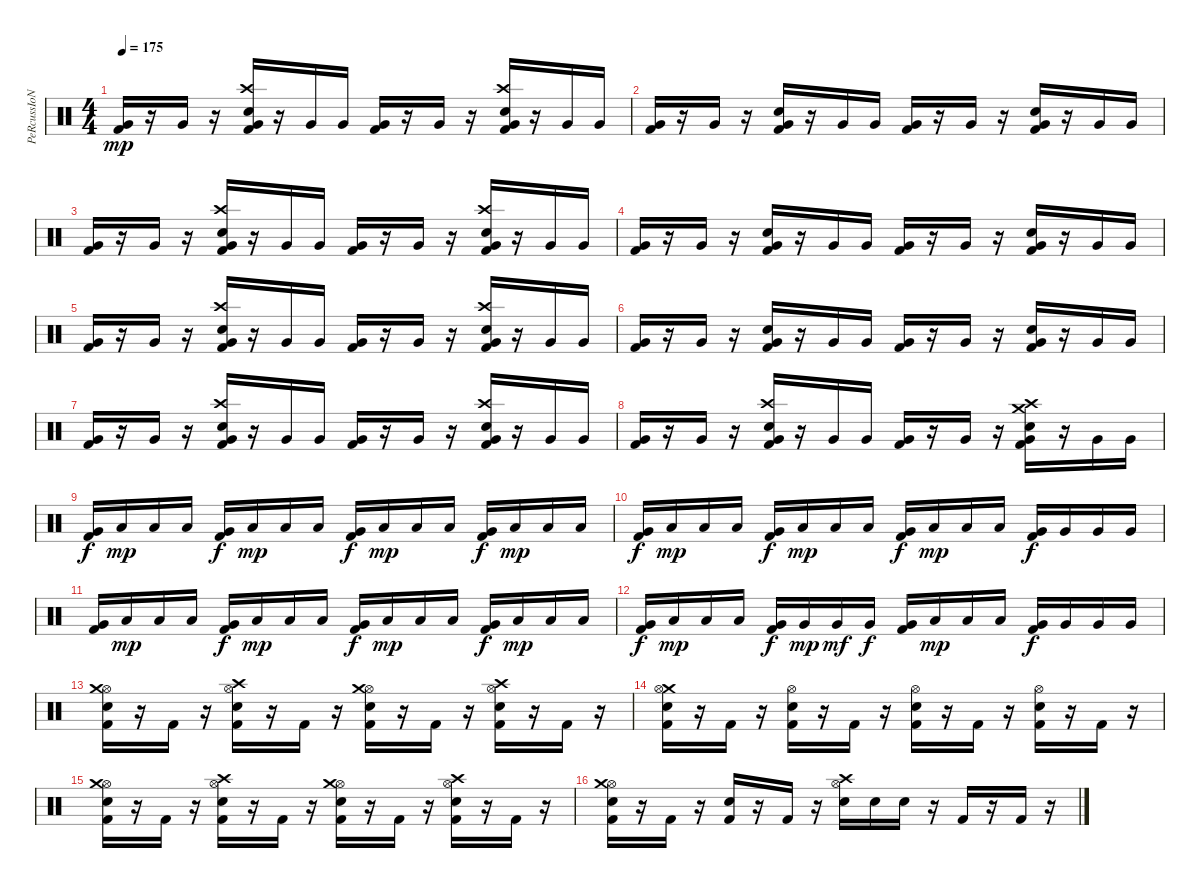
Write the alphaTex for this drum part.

\track ("PeRcussIoNs" "PeRcussIoN") {instrument percussion}
\staff {score}
\articulation defaults
\ts (4 4)
\tempo 175
\clef neutral
\ks c
("Kick (hit) 2" "Very Low Tom (hit)").16{dy mp} r.16 "Very Low Tom (hit)".16 r.16 ("Crash high (hit)" "Electric Snare (hit)" "Kick (hit) 2" "Very Low Tom (hit)").16 r.16 "Very Low Tom (hit)".16 "Very Low Tom (hit)".16 ("Kick (hit) 2" "Very Low Tom (hit)").16 r.16 "Very Low Tom (hit)".16 r.16 ("Crash high (hit)" "Electric Snare (hit)" "Kick (hit) 2" "Very Low Tom (hit)").16 r.16 "Very Low Tom (hit)".16 "Very Low Tom (hit)".16 |
("Kick (hit) 2" "Very Low Tom (hit)").16 r.16 "Very Low Tom (hit)".16 r.16 ("Electric Snare (hit)" "Kick (hit) 2" "Very Low Tom (hit)").16 r.16 "Very Low Tom (hit)".16 "Very Low Tom (hit)".16 ("Kick (hit) 2" "Very Low Tom (hit)").16 r.16 "Very Low Tom (hit)".16 r.16 ("Electric Snare (hit)" "Kick (hit) 2" "Very Low Tom (hit)").16 r.16 "Very Low Tom (hit)".16 "Very Low Tom (hit)".16 |
("Kick (hit) 2" "Very Low Tom (hit)").16 r.16 "Very Low Tom (hit)".16 r.16 ("Crash high (hit)" "Electric Snare (hit)" "Kick (hit) 2" "Very Low Tom (hit)").16 r.16 "Very Low Tom (hit)".16 "Very Low Tom (hit)".16 ("Kick (hit) 2" "Very Low Tom (hit)").16 r.16 "Very Low Tom (hit)".16 r.16 ("Crash high (hit)" "Electric Snare (hit)" "Kick (hit) 2" "Very Low Tom (hit)").16 r.16 "Very Low Tom (hit)".16 "Very Low Tom (hit)".16 |
("Kick (hit) 2" "Very Low Tom (hit)").16 r.16 "Very Low Tom (hit)".16 r.16 ("Electric Snare (hit)" "Kick (hit) 2" "Very Low Tom (hit)").16 r.16 "Very Low Tom (hit)".16 "Very Low Tom (hit)".16 ("Kick (hit) 2" "Very Low Tom (hit)").16 r.16 "Very Low Tom (hit)".16 r.16 ("Electric Snare (hit)" "Kick (hit) 2" "Very Low Tom (hit)").16 r.16 "Very Low Tom (hit)".16 "Very Low Tom (hit)".16 |
("Kick (hit) 2" "Very Low Tom (hit)").16 r.16 "Very Low Tom (hit)".16 r.16 ("Crash high (hit)" "Electric Snare (hit)" "Kick (hit) 2" "Very Low Tom (hit)").16 r.16 "Very Low Tom (hit)".16 "Very Low Tom (hit)".16 ("Kick (hit) 2" "Very Low Tom (hit)").16 r.16 "Very Low Tom (hit)".16 r.16 ("Crash high (hit)" "Electric Snare (hit)" "Kick (hit) 2" "Very Low Tom (hit)").16 r.16 "Very Low Tom (hit)".16 "Very Low Tom (hit)".16 |
("Kick (hit) 2" "Very Low Tom (hit)").16 r.16 "Very Low Tom (hit)".16 r.16 ("Electric Snare (hit)" "Kick (hit) 2" "Very Low Tom (hit)").16 r.16 "Very Low Tom (hit)".16 "Very Low Tom (hit)".16 ("Kick (hit) 2" "Very Low Tom (hit)").16 r.16 "Very Low Tom (hit)".16 r.16 ("Electric Snare (hit)" "Kick (hit) 2" "Very Low Tom (hit)").16 r.16 "Very Low Tom (hit)".16 "Very Low Tom (hit)".16 |
("Kick (hit) 2" "Very Low Tom (hit)").16 r.16 "Very Low Tom (hit)".16 r.16 ("Crash high (hit)" "Electric Snare (hit)" "Kick (hit) 2" "Very Low Tom (hit)").16 r.16 "Very Low Tom (hit)".16 "Very Low Tom (hit)".16 ("Kick (hit) 2" "Very Low Tom (hit)").16 r.16 "Very Low Tom (hit)".16 r.16 ("Crash high (hit)" "Electric Snare (hit)" "Kick (hit) 2" "Very Low Tom (hit)").16 r.16 "Very Low Tom (hit)".16 "Very Low Tom (hit)".16 |
("Kick (hit) 2" "Very Low Tom (hit)").16 r.16 "Very Low Tom (hit)".16 r.16 ("Crash high (hit)" "Electric Snare (hit)" "Kick (hit) 2" "Very Low Tom (hit)").16 r.16 "Very Low Tom (hit)".16 "Very Low Tom (hit)".16 ("Kick (hit) 2" "Very Low Tom (hit)").16 r.16 "Very Low Tom (hit)".16 r.16 ("Crash medium (hit)" "Crash high (hit)" "Electric Snare (hit)" "Kick (hit) 2" "Very Low Tom (hit)").16 r.16 "Very Low Tom (hit)".16 "Very Low Tom (hit)".16 |
("Very Low Tom (hit)" "Kick (hit) 2").16{dy f} "Low Tom (hit)".16{dy mp} "Low Tom (hit)".16 "Low Tom (hit)".16 ("Very Low Tom (hit)" "Kick (hit) 2").16{dy f} "Low Tom (hit)".16{dy mp} "Low Tom (hit)".16 "Low Tom (hit)".16 ("Very Low Tom (hit)" "Kick (hit) 2").16{dy f} "Low Tom (hit)".16{dy mp} "Low Tom (hit)".16 "Low Tom (hit)".16 ("Very Low Tom (hit)" "Kick (hit) 2").16{dy f} "Low Tom (hit)".16{dy mp} "Low Tom (hit)".16 "Low Tom (hit)".16 |
("Very Low Tom (hit)" "Kick (hit) 2").16{dy f} "Low Tom (hit)".16{dy mp} "Low Tom (hit)".16 "Low Tom (hit)".16 ("Very Low Tom (hit)" "Kick (hit) 2").16{dy f} "Low Tom (hit)".16{dy mp} "Low Tom (hit)".16 "Low Tom (hit)".16 ("Very Low Tom (hit)" "Kick (hit) 2").16{dy f} "Low Tom (hit)".16{dy mp} "Low Tom (hit)".16 "Low Tom (hit)".16 ("Very Low Tom (hit)" "Kick (hit) 2").16{dy f} "Very Low Tom (hit)".16 "Very Low Tom (hit)".16 "Very Low Tom (hit)".16 |
("Very Low Tom (hit)" "Kick (hit) 2").16 "Low Tom (hit)".16{dy mp} "Low Tom (hit)".16 "Low Tom (hit)".16 ("Very Low Tom (hit)" "Kick (hit) 2").16{dy f} "Low Tom (hit)".16{dy mp} "Low Tom (hit)".16 "Low Tom (hit)".16 ("Very Low Tom (hit)" "Kick (hit) 2").16{dy f} "Low Tom (hit)".16{dy mp} "Low Tom (hit)".16 "Low Tom (hit)".16 ("Very Low Tom (hit)" "Kick (hit) 2").16{dy f} "Low Tom (hit)".16{dy mp} "Low Tom (hit)".16 "Low Tom (hit)".16 |
("Very Low Tom (hit)" "Kick (hit) 2").16{dy f} "Low Tom (hit)".16{dy mp} "Low Tom (hit)".16 "Low Tom (hit)".16 ("Very Low Tom (hit)" "Kick (hit) 2").16{dy f} "Very Low Tom (hit)".16{dy mp} "Very Low Tom (hit)".16{dy mf} "Very Low Tom (hit)".16{dy f} ("Very Low Tom (hit)" "Kick (hit) 2").16 "Low Tom (hit)".16{dy mp} "Low Tom (hit)".16 "Low Tom (hit)".16 ("Very Low Tom (hit)" "Kick (hit) 2").16{dy f} "Very Low Tom (hit)".16 "Very Low Tom (hit)".16 "Very Low Tom (hit)".16 |
("Hi-Hat (open)" "Electric Snare (hit)" "Kick (hit) 2" "Crash medium (hit)").16 r.16 "Kick (hit) 2".16 r.16 ("Hi-Hat (open)" "Electric Snare (hit)" "Kick (hit) 2" "Crash high (hit)").16 r.16 "Kick (hit) 2".16 r.16 ("Hi-Hat (open)" "Electric Snare (hit)" "Kick (hit) 2" "Crash medium (hit)").16 r.16 "Kick (hit) 2".16 r.16 ("Hi-Hat (open)" "Electric Snare (hit)" "Kick (hit) 2" "Crash high (hit)").16 r.16 "Kick (hit) 2".16 r.16 |
("Crash medium (hit)" "Hi-Hat (open)" "Electric Snare (hit)" "Kick (hit) 2").16 r.16 "Kick (hit) 2".16 r.16 ("Hi-Hat (open)" "Electric Snare (hit)" "Kick (hit) 2").16 r.16 "Kick (hit) 2".16 r.16 ("Hi-Hat (open)" "Electric Snare (hit)" "Kick (hit) 2").16 r.16 "Kick (hit) 2".16 r.16 ("Hi-Hat (open)" "Electric Snare (hit)" "Kick (hit) 2").16 r.16 "Kick (hit) 2".16 r.16 |
("Hi-Hat (open)" "Electric Snare (hit)" "Kick (hit) 2" "Crash medium (hit)").16 r.16 "Kick (hit) 2".16 r.16 ("Hi-Hat (open)" "Electric Snare (hit)" "Kick (hit) 2" "Crash high (hit)").16 r.16 "Kick (hit) 2".16 r.16 ("Hi-Hat (open)" "Electric Snare (hit)" "Kick (hit) 2" "Crash medium (hit)").16 r.16 "Kick (hit) 2".16 r.16 ("Hi-Hat (open)" "Electric Snare (hit)" "Kick (hit) 2" "Crash high (hit)").16 r.16 "Kick (hit) 2".16 r.16 |
("Hi-Hat (open)" "Crash medium (hit)" "Electric Snare (hit)" "Kick (hit) 2").16 r.16 "Kick (hit) 2".16 r.16 ("Electric Snare (hit)" "Kick (hit) 2").16 r.16 "Kick (hit) 2".16 r.16 ("Crash high (hit)" "Hi-Hat (open)" "Electric Snare (hit)").16 "Electric Snare (hit)".16 "Electric Snare (hit)".16 r.16 "Kick (hit) 2".16 r.16 "Kick (hit) 2".16 r.16
